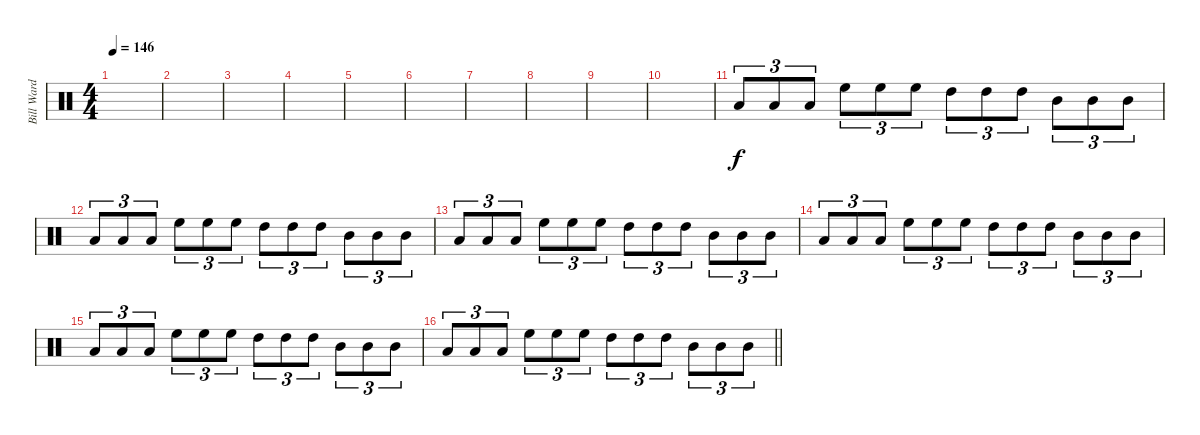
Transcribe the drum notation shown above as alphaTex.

\track ("Bill Ward - Drum Fills" "Bill Ward ") {instrument percussion}
\staff {score}
\articulation defaults
\ts (4 4)
\tempo 146
\clef neutral
\ks c
|
|
|
|
|
|
|
|
|
|
"Low Tom (hit)".8{tu (3 2)} "Low Tom (hit)".8{tu (3 2)} "Low Tom (hit)".8{tu (3 2)} "High Floor Tom (hit)".8{tu (3 2)} "High Floor Tom (hit)".8{tu (3 2)} "High Floor Tom (hit)".8{tu (3 2)} "High Tom (hit)".8{tu (3 2)} "High Tom (hit)".8{tu (3 2)} "High Tom (hit)".8{tu (3 2)} "Mid Tom (hit)".8{tu (3 2)} "Mid Tom (hit)".8{tu (3 2)} "Mid Tom (hit)".8{tu (3 2)} |
"Low Tom (hit)".8{tu (3 2)} "Low Tom (hit)".8{tu (3 2)} "Low Tom (hit)".8{tu (3 2)} "High Floor Tom (hit)".8{tu (3 2)} "High Floor Tom (hit)".8{tu (3 2)} "High Floor Tom (hit)".8{tu (3 2)} "High Tom (hit)".8{tu (3 2)} "High Tom (hit)".8{tu (3 2)} "High Tom (hit)".8{tu (3 2)} "Mid Tom (hit)".8{tu (3 2)} "Mid Tom (hit)".8{tu (3 2)} "Mid Tom (hit)".8{tu (3 2)} |
"Low Tom (hit)".8{tu (3 2)} "Low Tom (hit)".8{tu (3 2)} "Low Tom (hit)".8{tu (3 2)} "High Floor Tom (hit)".8{tu (3 2)} "High Floor Tom (hit)".8{tu (3 2)} "High Floor Tom (hit)".8{tu (3 2)} "High Tom (hit)".8{tu (3 2)} "High Tom (hit)".8{tu (3 2)} "High Tom (hit)".8{tu (3 2)} "Mid Tom (hit)".8{tu (3 2)} "Mid Tom (hit)".8{tu (3 2)} "Mid Tom (hit)".8{tu (3 2)} |
"Low Tom (hit)".8{tu (3 2)} "Low Tom (hit)".8{tu (3 2)} "Low Tom (hit)".8{tu (3 2)} "High Floor Tom (hit)".8{tu (3 2)} "High Floor Tom (hit)".8{tu (3 2)} "High Floor Tom (hit)".8{tu (3 2)} "High Tom (hit)".8{tu (3 2)} "High Tom (hit)".8{tu (3 2)} "High Tom (hit)".8{tu (3 2)} "Mid Tom (hit)".8{tu (3 2)} "Mid Tom (hit)".8{tu (3 2)} "Mid Tom (hit)".8{tu (3 2)} |
"Low Tom (hit)".8{tu (3 2)} "Low Tom (hit)".8{tu (3 2)} "Low Tom (hit)".8{tu (3 2)} "High Floor Tom (hit)".8{tu (3 2)} "High Floor Tom (hit)".8{tu (3 2)} "High Floor Tom (hit)".8{tu (3 2)} "High Tom (hit)".8{tu (3 2)} "High Tom (hit)".8{tu (3 2)} "High Tom (hit)".8{tu (3 2)} "Mid Tom (hit)".8{tu (3 2)} "Mid Tom (hit)".8{tu (3 2)} "Mid Tom (hit)".8{tu (3 2)} |
\barLineRight lightlight "Low Tom (hit)".8{tu (3 2)} "Low Tom (hit)".8{tu (3 2)} "Low Tom (hit)".8{tu (3 2)} "High Floor Tom (hit)".8{tu (3 2)} "High Floor Tom (hit)".8{tu (3 2)} "High Floor Tom (hit)".8{tu (3 2)} "High Tom (hit)".8{tu (3 2)} "High Tom (hit)".8{tu (3 2)} "High Tom (hit)".8{tu (3 2)} "Mid Tom (hit)".8{tu (3 2)} "Mid Tom (hit)".8{tu (3 2)} "Mid Tom (hit)".8{tu (3 2)}
